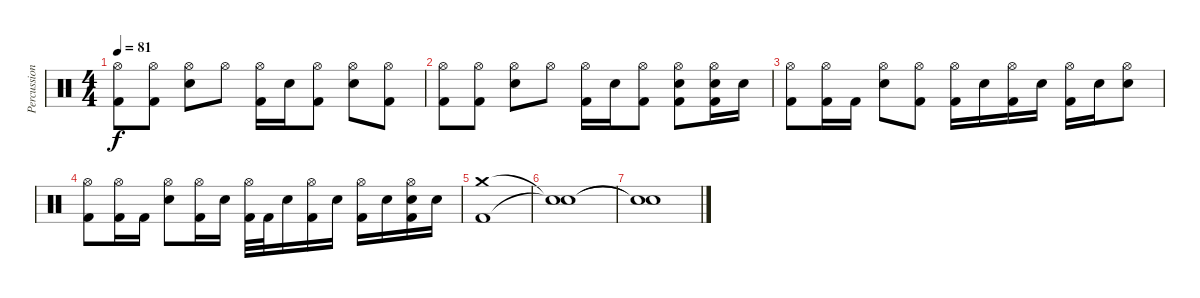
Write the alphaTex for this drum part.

\track ("Percussion" "Percussion") {instrument percussion}
\staff {score}
\articulation defaults
\ts (4 4)
\tempo 81
\clef neutral
\ks c
("Hi-Hat (open)" "Kick (hit) 2").8{dy f} ("Hi-Hat (open)" "Kick (hit) 2").8 ("Hi-Hat (open)" "Snare (hit) 2").8 "Hi-Hat (open)".8 ("Hi-Hat (open)" "Kick (hit) 2").16 "Snare (hit) 2".16 ("Hi-Hat (open)" "Kick (hit) 2").8 ("Hi-Hat (open)" "Snare (hit) 2").8 ("Hi-Hat (open)" "Kick (hit) 2").8 |
("Hi-Hat (open)" "Kick (hit) 2").8 ("Hi-Hat (open)" "Kick (hit) 2").8 ("Hi-Hat (open)" "Snare (hit) 2").8 "Hi-Hat (open)".8 ("Hi-Hat (open)" "Kick (hit) 2").16 "Snare (hit) 2".16 ("Hi-Hat (open)" "Kick (hit) 2").8 ("Hi-Hat (open)" "Snare (hit) 2" "Kick (hit) 2").8 ("Hi-Hat (open)" "Snare (hit) 2" "Kick (hit) 2").16 "Snare (hit) 2".16 |
("Hi-Hat (open)" "Kick (hit) 2").8 ("Hi-Hat (open)" "Kick (hit) 2").16 "Kick (hit) 2".16 ("Hi-Hat (open)" "Snare (hit) 2").8 ("Hi-Hat (open)" "Kick (hit) 2").8 ("Hi-Hat (open)" "Kick (hit) 2").16 "Snare (hit) 2".16 ("Hi-Hat (open)" "Kick (hit) 2").16 "Snare (hit) 2".16 ("Hi-Hat (open)" "Kick (hit) 2").16 "Snare (hit) 2".16 ("Hi-Hat (open)" "Snare (hit) 2").8 |
("Hi-Hat (open)" "Kick (hit) 2").8 ("Hi-Hat (open)" "Kick (hit) 2").16 "Kick (hit) 2".16 ("Hi-Hat (open)" "Snare (hit) 2").8 ("Hi-Hat (open)" "Kick (hit) 2").16 "Snare (hit) 2".16 ("Hi-Hat (open)" "Kick (hit) 2").32 "Kick (hit) 2".32 "Snare (hit) 2".16 ("Hi-Hat (open)" "Kick (hit) 2").16 "Snare (hit) 2".16 ("Hi-Hat (open)" "Kick (hit) 2").16 "Snare (hit) 2".16 ("Hi-Hat (open)" "Snare (hit) 2" "Kick (hit) 2").16 "Snare (hit) 2".16 |
("Crash medium (hit)" "Kick (hit) 2").1 |
("Snare (hit)"{t} "Snare (hit)"{t}).1 |
("Snare (hit)"{t} "Snare (hit)"{t}).1
